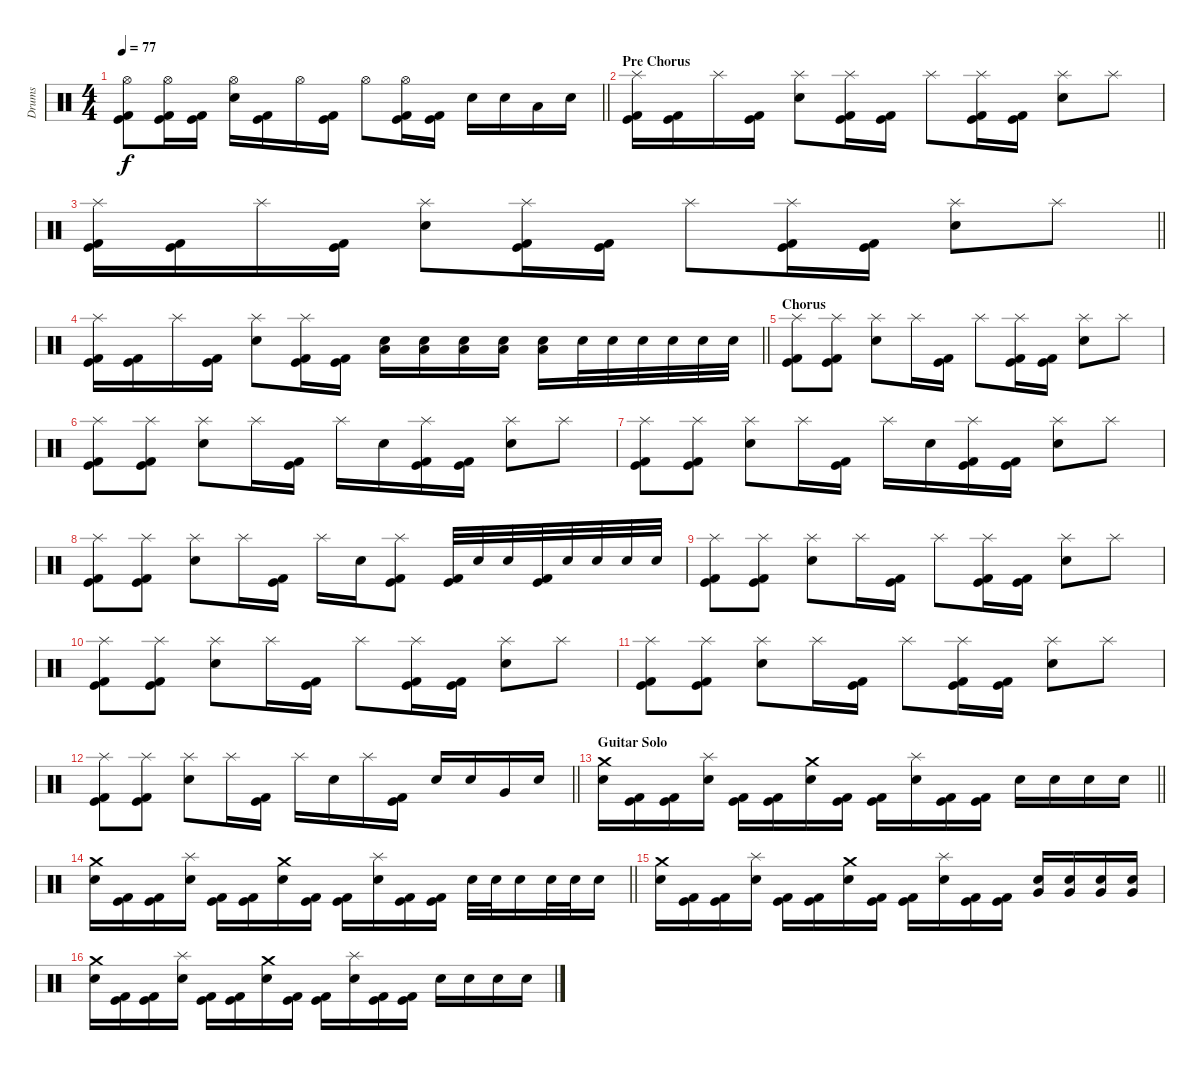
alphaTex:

\track ("Drums" "Drums") {instrument percussion}
\staff {score}
\articulation defaults
\ts (4 4)
\tempo 77
\clef neutral
\barLineRight lightlight
\ks c
("Hi-Hat (open)" "Kick (hit)" "Kick (hit) 2").8{dy f} ("Hi-Hat (open)" "Kick (hit)" "Kick (hit) 2").16 ("Kick (hit)" "Kick (hit) 2").16 ("Hi-Hat (open)" "Snare (hit) 2").16 ("Kick (hit)" "Kick (hit) 2").16 "Hi-Hat (open)".16 ("Kick (hit)" "Kick (hit) 2").16 "Hi-Hat (open)".8 ("Hi-Hat (open)" "Kick (hit)" "Kick (hit) 2").16 ("Kick (hit)" "Kick (hit) 2").16 "Snare (hit) 2".16 "Snare (hit) 2".16 "Low Tom (hit)".16 "Snare (hit) 2".16 |
\section ("" "Pre Chorus")
("Splash (hit)" "Kick (hit)" "Kick (hit) 2").16 ("Kick (hit)" "Kick (hit) 2").16 "Splash (hit)".16 ("Kick (hit)" "Kick (hit) 2").16 ("Splash (hit)" "Snare (hit) 2").8 ("Splash (hit)" "Kick (hit)" "Kick (hit) 2").16 ("Kick (hit)" "Kick (hit) 2").16 "Splash (hit)".8 ("Splash (hit)" "Kick (hit)" "Kick (hit) 2").16 ("Kick (hit)" "Kick (hit) 2").16 ("Splash (hit)" "Snare (hit) 2").8 "Splash (hit)".8 |
\barLineRight lightlight
("Splash (hit)" "Kick (hit)" "Kick (hit) 2").16 ("Kick (hit)" "Kick (hit) 2").16 "Splash (hit)".16 ("Kick (hit)" "Kick (hit) 2").16 ("Splash (hit)" "Snare (hit) 2").8 ("Splash (hit)" "Kick (hit)" "Kick (hit) 2").16 ("Kick (hit)" "Kick (hit) 2").16 "Splash (hit)".8 ("Splash (hit)" "Kick (hit)" "Kick (hit) 2").16 ("Kick (hit)" "Kick (hit) 2").16 ("Splash (hit)" "Snare (hit) 2").8 "Splash (hit)".8 |
\barLineRight lightlight
("Splash (hit)" "Kick (hit)" "Kick (hit) 2").16 ("Kick (hit)" "Kick (hit) 2").16 "Splash (hit)".16 ("Kick (hit)" "Kick (hit) 2").16 ("Splash (hit)" "Snare (hit) 2").8 ("Splash (hit)" "Kick (hit)" "Kick (hit) 2").16 ("Kick (hit)" "Kick (hit) 2").16 ("Low Tom (hit)" "Snare (hit) 2").16 ("Low Tom (hit)" "Snare (hit) 2").16 ("Low Tom (hit)" "Snare (hit) 2").16 ("Low Tom (hit)" "Snare (hit) 2").16 ("Low Tom (hit)" "Snare (hit) 2").16 "Snare (hit) 2".32 "Snare (hit) 2".32 "Snare (hit) 2".32 "Snare (hit) 2".32 "Snare (hit) 2".32 "Snare (hit) 2".32 |
\section ("" "Chorus")
("Splash (hit)" "Kick (hit)" "Kick (hit) 2").8 ("Splash (hit)" "Kick (hit)" "Kick (hit) 2").8 ("Splash (hit)" "Snare (hit) 2").8 "Splash (hit)".16 ("Kick (hit)" "Kick (hit) 2").16 "Splash (hit)".8 ("Splash (hit)" "Kick (hit)" "Kick (hit) 2").16 ("Kick (hit)" "Kick (hit) 2").16 ("Splash (hit)" "Snare (hit) 2").8 "Splash (hit)".8 |
("Splash (hit)" "Kick (hit)" "Kick (hit) 2").8 ("Splash (hit)" "Kick (hit)" "Kick (hit) 2").8 ("Splash (hit)" "Snare (hit) 2").8 "Splash (hit)".16 ("Kick (hit)" "Kick (hit) 2").16 "Splash (hit)".16 "Snare (hit) 2".16 ("Splash (hit)" "Kick (hit)" "Kick (hit) 2").16 ("Kick (hit)" "Kick (hit) 2").16 ("Splash (hit)" "Snare (hit) 2").8 "Splash (hit)".8 |
("Splash (hit)" "Kick (hit)" "Kick (hit) 2").8 ("Splash (hit)" "Kick (hit)" "Kick (hit) 2").8 ("Splash (hit)" "Snare (hit) 2").8 "Splash (hit)".16 ("Kick (hit)" "Kick (hit) 2").16 "Splash (hit)".16 "Snare (hit) 2".16 ("Splash (hit)" "Kick (hit)" "Kick (hit) 2").16 ("Kick (hit)" "Kick (hit) 2").16 ("Splash (hit)" "Snare (hit) 2").8 "Splash (hit)".8 |
("Splash (hit)" "Kick (hit)" "Kick (hit) 2").8 ("Splash (hit)" "Kick (hit)" "Kick (hit) 2").8 ("Splash (hit)" "Snare (hit) 2").8 "Splash (hit)".16 ("Kick (hit)" "Kick (hit) 2").16 "Splash (hit)".16 "Snare (hit) 2".16 ("Splash (hit)" "Kick (hit)" "Kick (hit) 2").8 ("Kick (hit)" "Kick (hit) 2").32 "Snare (hit) 2".32 "Snare (hit) 2".32 ("Kick (hit)" "Kick (hit) 2").32 "Snare (hit) 2".32 "Snare (hit) 2".32 "Snare (hit) 2".32 "Snare (hit) 2".32 |
("Splash (hit)" "Kick (hit)" "Kick (hit) 2").8 ("Splash (hit)" "Kick (hit)" "Kick (hit) 2").8 ("Splash (hit)" "Snare (hit) 2").8 "Splash (hit)".16 ("Kick (hit)" "Kick (hit) 2").16 "Splash (hit)".8 ("Splash (hit)" "Kick (hit)" "Kick (hit) 2").16 ("Kick (hit)" "Kick (hit) 2").16 ("Splash (hit)" "Snare (hit) 2").8 "Splash (hit)".8 |
("Splash (hit)" "Kick (hit)" "Kick (hit) 2").8 ("Splash (hit)" "Kick (hit)" "Kick (hit) 2").8 ("Splash (hit)" "Snare (hit) 2").8 "Splash (hit)".16 ("Kick (hit)" "Kick (hit) 2").16 "Splash (hit)".8 ("Splash (hit)" "Kick (hit)" "Kick (hit) 2").16 ("Kick (hit)" "Kick (hit) 2").16 ("Splash (hit)" "Snare (hit) 2").8 "Splash (hit)".8 |
("Splash (hit)" "Kick (hit)" "Kick (hit) 2").8 ("Splash (hit)" "Kick (hit)" "Kick (hit) 2").8 ("Splash (hit)" "Snare (hit) 2").8 "Splash (hit)".16 ("Kick (hit)" "Kick (hit) 2").16 "Splash (hit)".8 ("Splash (hit)" "Kick (hit)" "Kick (hit) 2").16 ("Kick (hit)" "Kick (hit) 2").16 ("Splash (hit)" "Snare (hit) 2").8 "Splash (hit)".8 |
\barLineRight lightlight
("Splash (hit)" "Kick (hit)" "Kick (hit) 2").8 ("Splash (hit)" "Kick (hit)" "Kick (hit) 2").8 ("Splash (hit)" "Snare (hit) 2").8 "Splash (hit)".16 ("Kick (hit)" "Kick (hit) 2").16 "Splash (hit)".16 "Snare (hit) 2".16 "Splash (hit)".16 ("Kick (hit)" "Kick (hit) 2").16 "Snare (hit) 2".16 "Snare (hit) 2".16 "Very Low Tom (hit)".16 "Snare (hit) 2".16 |
\section ("" "Guitar Solo")
\barLineRight lightlight
("Crash medium (hit)" "Snare (hit) 2").16 ("Kick (hit)" "Kick (hit) 2").16 ("Kick (hit)" "Kick (hit) 2").16 ("Splash (hit)" "Snare (hit) 2").16 ("Kick (hit)" "Kick (hit) 2").16 ("Kick (hit)" "Kick (hit) 2").16 ("Crash medium (hit)" "Snare (hit) 2").16 ("Kick (hit)" "Kick (hit) 2").16 ("Kick (hit)" "Kick (hit) 2").16 ("Splash (hit)" "Snare (hit) 2").16 ("Kick (hit)" "Kick (hit) 2").16 ("Kick (hit)" "Kick (hit) 2").16 "Snare (hit) 2".16 "Snare (hit) 2".16 "Snare (hit) 2".16 "Snare (hit) 2".16 |
\barLineRight lightlight
("Crash medium (hit)" "Snare (hit) 2").16 ("Kick (hit)" "Kick (hit) 2").16 ("Kick (hit)" "Kick (hit) 2").16 ("Splash (hit)" "Snare (hit) 2").16 ("Kick (hit)" "Kick (hit) 2").16 ("Kick (hit)" "Kick (hit) 2").16 ("Crash medium (hit)" "Snare (hit) 2").16 ("Kick (hit)" "Kick (hit) 2").16 ("Kick (hit)" "Kick (hit) 2").16 ("Splash (hit)" "Snare (hit) 2").16 ("Kick (hit)" "Kick (hit) 2").16 ("Kick (hit)" "Kick (hit) 2").16 "Snare (hit) 2".32 "Snare (hit) 2".32 "Snare (hit) 2".16 "Snare (hit) 2".32 "Snare (hit) 2".32 "Snare (hit) 2".16 |
("Crash medium (hit)" "Snare (hit) 2").16 ("Kick (hit)" "Kick (hit) 2").16 ("Kick (hit)" "Kick (hit) 2").16 ("Splash (hit)" "Snare (hit) 2").16 ("Kick (hit)" "Kick (hit) 2").16 ("Kick (hit)" "Kick (hit) 2").16 ("Crash medium (hit)" "Snare (hit) 2").16 ("Kick (hit)" "Kick (hit) 2").16 ("Kick (hit)" "Kick (hit) 2").16 ("Splash (hit)" "Snare (hit) 2").16 ("Kick (hit)" "Kick (hit) 2").16 ("Kick (hit)" "Kick (hit) 2").16 ("Very Low Tom (hit)" "Snare (hit) 2").16 ("Very Low Tom (hit)" "Snare (hit) 2").16 ("Very Low Tom (hit)" "Snare (hit) 2").16 ("Very Low Tom (hit)" "Snare (hit) 2").16 |
("Crash medium (hit)" "Snare (hit) 2").16 ("Kick (hit)" "Kick (hit) 2").16 ("Kick (hit)" "Kick (hit) 2").16 ("Splash (hit)" "Snare (hit) 2").16 ("Kick (hit)" "Kick (hit) 2").16 ("Kick (hit)" "Kick (hit) 2").16 ("Crash medium (hit)" "Snare (hit) 2").16 ("Kick (hit)" "Kick (hit) 2").16 ("Kick (hit)" "Kick (hit) 2").16 ("Splash (hit)" "Snare (hit) 2").16 ("Kick (hit)" "Kick (hit) 2").16 ("Kick (hit)" "Kick (hit) 2").16 "Snare (hit) 2".16 "Snare (hit) 2".16 "Snare (hit) 2".16 "Snare (hit) 2".16
